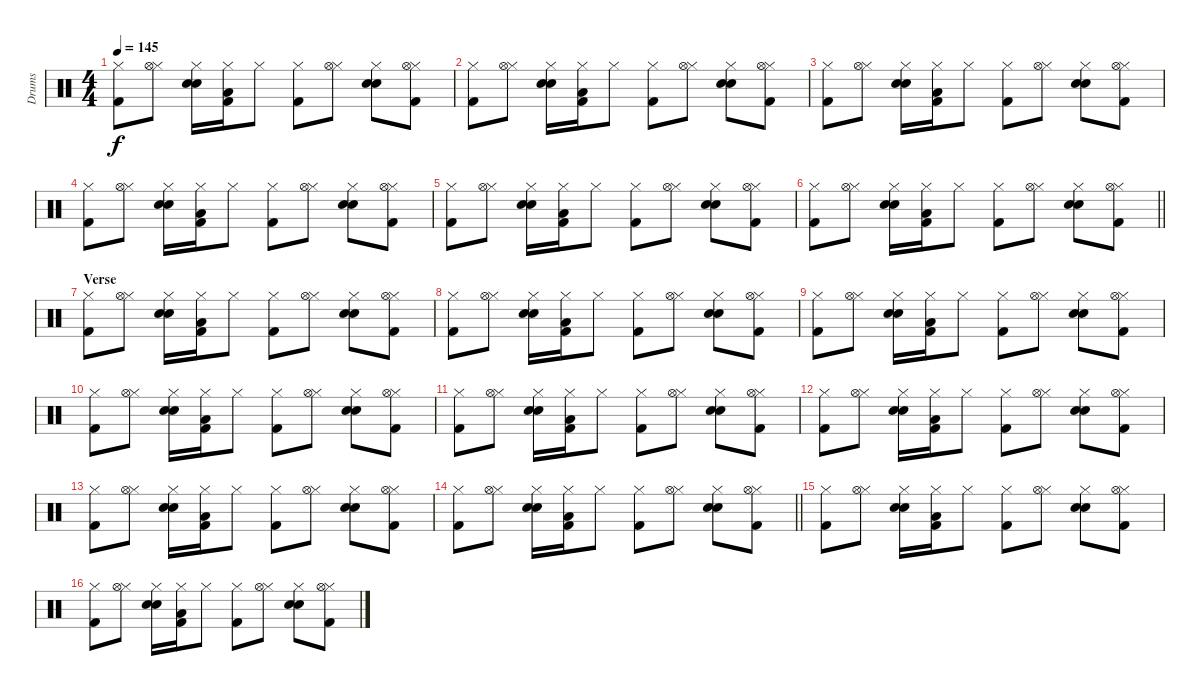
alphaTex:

\track ("Drums" "Drums") {instrument percussion}
\staff {score}
\articulation defaults
\ts (4 4)
\tempo 145
\clef neutral
\ks c
("Hi-Hat (closed)" "Kick (hit) 2").8{dy f} ("Hi-Hat (closed)" "Hi-Hat (open)").8 ("Hi-Hat (closed)" "Snare (hit) 2" "Electric Snare (hit)").16 ("Hi-Hat (closed)" "Low Floor Tom (hit)" "Kick (hit) 2").16 "Hi-Hat (closed)".8 ("Hi-Hat (closed)" "Kick (hit) 2").8 ("Hi-Hat (closed)" "Hi-Hat (open)").8 ("Hi-Hat (closed)" "Snare (hit) 2" "Electric Snare (hit)").8 ("Hi-Hat (closed)" "Hi-Hat (open)" "Kick (hit) 2").8 |
("Hi-Hat (closed)" "Kick (hit) 2").8 ("Hi-Hat (closed)" "Hi-Hat (open)").8 ("Hi-Hat (closed)" "Snare (hit) 2" "Electric Snare (hit)").16 ("Hi-Hat (closed)" "Low Floor Tom (hit)" "Kick (hit) 2").16 "Hi-Hat (closed)".8 ("Hi-Hat (closed)" "Kick (hit) 2").8 ("Hi-Hat (closed)" "Hi-Hat (open)").8 ("Hi-Hat (closed)" "Snare (hit) 2" "Electric Snare (hit)").8 ("Hi-Hat (closed)" "Hi-Hat (open)" "Kick (hit) 2").8 |
("Hi-Hat (closed)" "Kick (hit) 2").8 ("Hi-Hat (closed)" "Hi-Hat (open)").8 ("Hi-Hat (closed)" "Snare (hit) 2" "Electric Snare (hit)").16 ("Hi-Hat (closed)" "Low Floor Tom (hit)" "Kick (hit) 2").16 "Hi-Hat (closed)".8 ("Hi-Hat (closed)" "Kick (hit) 2").8 ("Hi-Hat (closed)" "Hi-Hat (open)").8 ("Hi-Hat (closed)" "Snare (hit) 2" "Electric Snare (hit)").8 ("Hi-Hat (closed)" "Hi-Hat (open)" "Kick (hit) 2").8 |
("Hi-Hat (closed)" "Kick (hit) 2").8 ("Hi-Hat (closed)" "Hi-Hat (open)").8 ("Hi-Hat (closed)" "Snare (hit) 2" "Electric Snare (hit)").16 ("Hi-Hat (closed)" "Low Floor Tom (hit)" "Kick (hit) 2").16 "Hi-Hat (closed)".8 ("Hi-Hat (closed)" "Kick (hit) 2").8 ("Hi-Hat (closed)" "Hi-Hat (open)").8 ("Hi-Hat (closed)" "Snare (hit) 2" "Electric Snare (hit)").8 ("Hi-Hat (closed)" "Hi-Hat (open)" "Kick (hit) 2").8 |
("Hi-Hat (closed)" "Kick (hit) 2").8 ("Hi-Hat (closed)" "Hi-Hat (open)").8 ("Hi-Hat (closed)" "Snare (hit) 2" "Electric Snare (hit)").16 ("Hi-Hat (closed)" "Low Floor Tom (hit)" "Kick (hit) 2").16 "Hi-Hat (closed)".8 ("Hi-Hat (closed)" "Kick (hit) 2").8 ("Hi-Hat (closed)" "Hi-Hat (open)").8 ("Hi-Hat (closed)" "Snare (hit) 2" "Electric Snare (hit)").8 ("Hi-Hat (closed)" "Hi-Hat (open)" "Kick (hit) 2").8 |
\barLineRight lightlight
("Hi-Hat (closed)" "Kick (hit) 2").8 ("Hi-Hat (closed)" "Hi-Hat (open)").8 ("Hi-Hat (closed)" "Snare (hit) 2" "Electric Snare (hit)").16 ("Hi-Hat (closed)" "Low Floor Tom (hit)" "Kick (hit) 2").16 "Hi-Hat (closed)".8 ("Hi-Hat (closed)" "Kick (hit) 2").8 ("Hi-Hat (closed)" "Hi-Hat (open)").8 ("Hi-Hat (closed)" "Snare (hit) 2" "Electric Snare (hit)").8 ("Hi-Hat (closed)" "Hi-Hat (open)" "Kick (hit) 2").8 |
\section ("" "Verse")
("Hi-Hat (closed)" "Kick (hit) 2").8 ("Hi-Hat (closed)" "Hi-Hat (open)").8 ("Hi-Hat (closed)" "Snare (hit) 2" "Electric Snare (hit)").16 ("Hi-Hat (closed)" "Low Floor Tom (hit)" "Kick (hit) 2").16 "Hi-Hat (closed)".8 ("Hi-Hat (closed)" "Kick (hit) 2").8 ("Hi-Hat (closed)" "Hi-Hat (open)").8 ("Hi-Hat (closed)" "Snare (hit) 2" "Electric Snare (hit)").8 ("Hi-Hat (closed)" "Hi-Hat (open)" "Kick (hit) 2").8 |
("Hi-Hat (closed)" "Kick (hit) 2").8 ("Hi-Hat (closed)" "Hi-Hat (open)").8 ("Hi-Hat (closed)" "Snare (hit) 2" "Electric Snare (hit)").16 ("Hi-Hat (closed)" "Low Floor Tom (hit)" "Kick (hit) 2").16 "Hi-Hat (closed)".8 ("Hi-Hat (closed)" "Kick (hit) 2").8 ("Hi-Hat (closed)" "Hi-Hat (open)").8 ("Hi-Hat (closed)" "Snare (hit) 2" "Electric Snare (hit)").8 ("Hi-Hat (closed)" "Hi-Hat (open)" "Kick (hit) 2").8 |
("Hi-Hat (closed)" "Kick (hit) 2").8 ("Hi-Hat (closed)" "Hi-Hat (open)").8 ("Hi-Hat (closed)" "Snare (hit) 2" "Electric Snare (hit)").16 ("Hi-Hat (closed)" "Low Floor Tom (hit)" "Kick (hit) 2").16 "Hi-Hat (closed)".8 ("Hi-Hat (closed)" "Kick (hit) 2").8 ("Hi-Hat (closed)" "Hi-Hat (open)").8 ("Hi-Hat (closed)" "Snare (hit) 2" "Electric Snare (hit)").8 ("Hi-Hat (closed)" "Hi-Hat (open)" "Kick (hit) 2").8 |
("Hi-Hat (closed)" "Kick (hit) 2").8 ("Hi-Hat (closed)" "Hi-Hat (open)").8 ("Hi-Hat (closed)" "Snare (hit) 2" "Electric Snare (hit)").16 ("Hi-Hat (closed)" "Low Floor Tom (hit)" "Kick (hit) 2").16 "Hi-Hat (closed)".8 ("Hi-Hat (closed)" "Kick (hit) 2").8 ("Hi-Hat (closed)" "Hi-Hat (open)").8 ("Hi-Hat (closed)" "Snare (hit) 2" "Electric Snare (hit)").8 ("Hi-Hat (closed)" "Hi-Hat (open)" "Kick (hit) 2").8 |
("Hi-Hat (closed)" "Kick (hit) 2").8 ("Hi-Hat (closed)" "Hi-Hat (open)").8 ("Hi-Hat (closed)" "Snare (hit) 2" "Electric Snare (hit)").16 ("Hi-Hat (closed)" "Low Floor Tom (hit)" "Kick (hit) 2").16 "Hi-Hat (closed)".8 ("Hi-Hat (closed)" "Kick (hit) 2").8 ("Hi-Hat (closed)" "Hi-Hat (open)").8 ("Hi-Hat (closed)" "Snare (hit) 2" "Electric Snare (hit)").8 ("Hi-Hat (closed)" "Hi-Hat (open)" "Kick (hit) 2").8 |
("Hi-Hat (closed)" "Kick (hit) 2").8 ("Hi-Hat (closed)" "Hi-Hat (open)").8 ("Hi-Hat (closed)" "Snare (hit) 2" "Electric Snare (hit)").16 ("Hi-Hat (closed)" "Low Floor Tom (hit)" "Kick (hit) 2").16 "Hi-Hat (closed)".8 ("Hi-Hat (closed)" "Kick (hit) 2").8 ("Hi-Hat (closed)" "Hi-Hat (open)").8 ("Hi-Hat (closed)" "Snare (hit) 2" "Electric Snare (hit)").8 ("Hi-Hat (closed)" "Hi-Hat (open)" "Kick (hit) 2").8 |
("Hi-Hat (closed)" "Kick (hit) 2").8 ("Hi-Hat (closed)" "Hi-Hat (open)").8 ("Hi-Hat (closed)" "Snare (hit) 2" "Electric Snare (hit)").16 ("Hi-Hat (closed)" "Low Floor Tom (hit)" "Kick (hit) 2").16 "Hi-Hat (closed)".8 ("Hi-Hat (closed)" "Kick (hit) 2").8 ("Hi-Hat (closed)" "Hi-Hat (open)").8 ("Hi-Hat (closed)" "Snare (hit) 2" "Electric Snare (hit)").8 ("Hi-Hat (closed)" "Hi-Hat (open)" "Kick (hit) 2").8 |
\barLineRight lightlight
("Hi-Hat (closed)" "Kick (hit) 2").8 ("Hi-Hat (closed)" "Hi-Hat (open)").8 ("Hi-Hat (closed)" "Snare (hit) 2" "Electric Snare (hit)").16 ("Hi-Hat (closed)" "Low Floor Tom (hit)" "Kick (hit) 2").16 "Hi-Hat (closed)".8 ("Hi-Hat (closed)" "Kick (hit) 2").8 ("Hi-Hat (closed)" "Hi-Hat (open)").8 ("Hi-Hat (closed)" "Snare (hit) 2" "Electric Snare (hit)").8 ("Hi-Hat (closed)" "Hi-Hat (open)" "Kick (hit) 2").8 |
("Hi-Hat (closed)" "Kick (hit) 2").8 ("Hi-Hat (closed)" "Hi-Hat (open)").8 ("Hi-Hat (closed)" "Snare (hit) 2" "Electric Snare (hit)").16 ("Hi-Hat (closed)" "Low Floor Tom (hit)" "Kick (hit) 2").16 "Hi-Hat (closed)".8 ("Hi-Hat (closed)" "Kick (hit) 2").8 ("Hi-Hat (closed)" "Hi-Hat (open)").8 ("Hi-Hat (closed)" "Snare (hit) 2" "Electric Snare (hit)").8 ("Hi-Hat (closed)" "Hi-Hat (open)" "Kick (hit) 2").8 |
("Hi-Hat (closed)" "Kick (hit) 2").8 ("Hi-Hat (closed)" "Hi-Hat (open)").8 ("Hi-Hat (closed)" "Snare (hit) 2" "Electric Snare (hit)").16 ("Hi-Hat (closed)" "Low Floor Tom (hit)" "Kick (hit) 2").16 "Hi-Hat (closed)".8 ("Hi-Hat (closed)" "Kick (hit) 2").8 ("Hi-Hat (closed)" "Hi-Hat (open)").8 ("Hi-Hat (closed)" "Snare (hit) 2" "Electric Snare (hit)").8 ("Hi-Hat (closed)" "Hi-Hat (open)" "Kick (hit) 2").8
